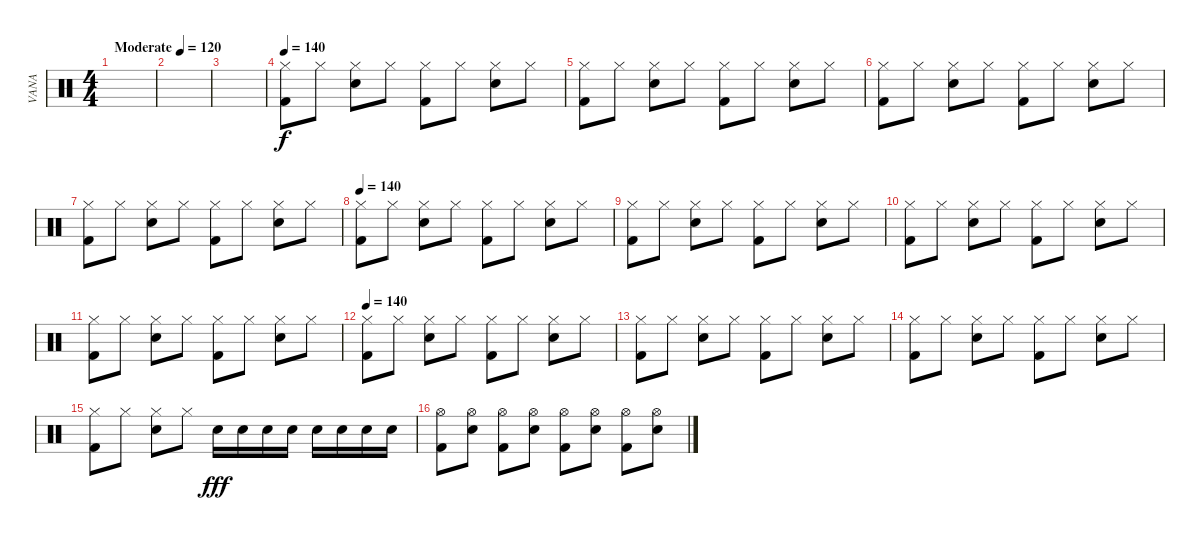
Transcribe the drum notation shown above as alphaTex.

\track ("VANA" "VANA") {instrument percussion}
\staff {score}
\articulation defaults
\ts (4 4)
\tempo (120 "Moderate")
\tempo 140
\tempo (120 "Moderate")
\clef neutral
\ks c
|
|
|
\tempo 140
("Hi-Hat (closed)" "Kick (hit) 2").8 "Hi-Hat (closed)".8 ("Hi-Hat (closed)" "Electric Snare (hit)").8 "Hi-Hat (closed)".8 ("Hi-Hat (closed)" "Kick (hit) 2").8 "Hi-Hat (closed)".8 ("Hi-Hat (closed)" "Electric Snare (hit)").8 "Hi-Hat (closed)".8 |
("Hi-Hat (closed)" "Kick (hit) 2").8 "Hi-Hat (closed)".8 ("Hi-Hat (closed)" "Electric Snare (hit)").8 "Hi-Hat (closed)".8 ("Hi-Hat (closed)" "Kick (hit) 2").8 "Hi-Hat (closed)".8 ("Hi-Hat (closed)" "Electric Snare (hit)").8 "Hi-Hat (closed)".8 |
("Hi-Hat (closed)" "Kick (hit) 2").8 "Hi-Hat (closed)".8 ("Hi-Hat (closed)" "Electric Snare (hit)").8 "Hi-Hat (closed)".8 ("Hi-Hat (closed)" "Kick (hit) 2").8 "Hi-Hat (closed)".8 ("Hi-Hat (closed)" "Electric Snare (hit)").8 "Hi-Hat (closed)".8 |
("Hi-Hat (closed)" "Kick (hit) 2").8 "Hi-Hat (closed)".8 ("Hi-Hat (closed)" "Electric Snare (hit)").8 "Hi-Hat (closed)".8 ("Hi-Hat (closed)" "Kick (hit) 2").8 "Hi-Hat (closed)".8 ("Hi-Hat (closed)" "Electric Snare (hit)").8 "Hi-Hat (closed)".8 |
\tempo 140
("Hi-Hat (closed)" "Kick (hit) 2").8 "Hi-Hat (closed)".8 ("Hi-Hat (closed)" "Electric Snare (hit)").8 "Hi-Hat (closed)".8 ("Hi-Hat (closed)" "Kick (hit) 2").8 "Hi-Hat (closed)".8 ("Hi-Hat (closed)" "Electric Snare (hit)").8 "Hi-Hat (closed)".8 |
("Hi-Hat (closed)" "Kick (hit) 2").8 "Hi-Hat (closed)".8 ("Hi-Hat (closed)" "Electric Snare (hit)").8 "Hi-Hat (closed)".8 ("Hi-Hat (closed)" "Kick (hit) 2").8 "Hi-Hat (closed)".8 ("Hi-Hat (closed)" "Electric Snare (hit)").8 "Hi-Hat (closed)".8 |
("Hi-Hat (closed)" "Kick (hit) 2").8 "Hi-Hat (closed)".8 ("Hi-Hat (closed)" "Electric Snare (hit)").8 "Hi-Hat (closed)".8 ("Hi-Hat (closed)" "Kick (hit) 2").8 "Hi-Hat (closed)".8 ("Hi-Hat (closed)" "Electric Snare (hit)").8 "Hi-Hat (closed)".8 |
("Hi-Hat (closed)" "Kick (hit) 2").8 "Hi-Hat (closed)".8 ("Hi-Hat (closed)" "Electric Snare (hit)").8 "Hi-Hat (closed)".8 ("Hi-Hat (closed)" "Kick (hit) 2").8 "Hi-Hat (closed)".8 ("Hi-Hat (closed)" "Electric Snare (hit)").8 "Hi-Hat (closed)".8 |
\tempo 140
("Hi-Hat (closed)" "Kick (hit) 2").8 "Hi-Hat (closed)".8 ("Hi-Hat (closed)" "Electric Snare (hit)").8 "Hi-Hat (closed)".8 ("Hi-Hat (closed)" "Kick (hit) 2").8 "Hi-Hat (closed)".8 ("Hi-Hat (closed)" "Electric Snare (hit)").8 "Hi-Hat (closed)".8 |
("Hi-Hat (closed)" "Kick (hit) 2").8 "Hi-Hat (closed)".8 ("Hi-Hat (closed)" "Electric Snare (hit)").8 "Hi-Hat (closed)".8 ("Hi-Hat (closed)" "Kick (hit) 2").8 "Hi-Hat (closed)".8 ("Hi-Hat (closed)" "Electric Snare (hit)").8 "Hi-Hat (closed)".8 |
("Hi-Hat (closed)" "Kick (hit) 2").8 "Hi-Hat (closed)".8 ("Hi-Hat (closed)" "Electric Snare (hit)").8 "Hi-Hat (closed)".8 ("Hi-Hat (closed)" "Kick (hit) 2").8 "Hi-Hat (closed)".8 ("Hi-Hat (closed)" "Electric Snare (hit)").8 "Hi-Hat (closed)".8 |
("Hi-Hat (closed)" "Kick (hit) 2").8 "Hi-Hat (closed)".8 ("Hi-Hat (closed)" "Electric Snare (hit)").8 "Hi-Hat (closed)".8 "Electric Snare (hit)".16{dy fff} "Electric Snare (hit)".16 "Electric Snare (hit)".16 "Electric Snare (hit)".16 "Electric Snare (hit)".16 "Electric Snare (hit)".16 "Electric Snare (hit)".16 "Electric Snare (hit)".16 |
("Hi-Hat (open)" "Kick (hit) 2").8 ("Hi-Hat (open)" "Electric Snare (hit)").8 ("Hi-Hat (open)" "Kick (hit) 2").8 ("Hi-Hat (open)" "Electric Snare (hit)").8 ("Hi-Hat (open)" "Kick (hit) 2").8 ("Hi-Hat (open)" "Electric Snare (hit)").8 ("Hi-Hat (open)" "Kick (hit) 2").8 ("Hi-Hat (open)" "Electric Snare (hit)").8
